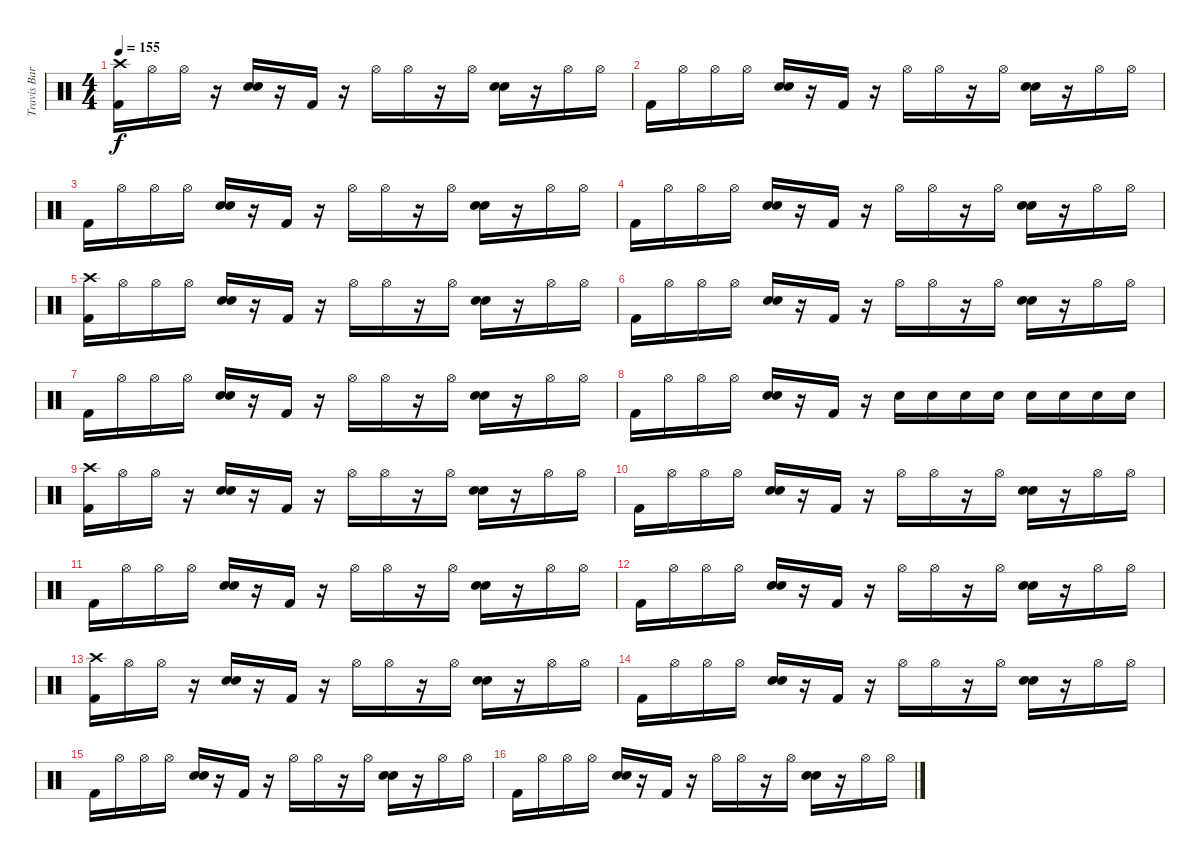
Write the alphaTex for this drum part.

\track ("Travis Barker Drums" "Travis Bar") {instrument percussion}
\staff {score}
\articulation defaults
\ts (4 4)
\tempo 155
\clef neutral
\ks c
("Crash high (hit)" "Kick (hit) 2").16{dy f} "Hi-Hat (open)".16 "Hi-Hat (open)".16 r.16 ("Hand Clap (hit)" "Snare (hit) 2").16 r.16 "Kick (hit) 2".16 r.16 "Hi-Hat (open)".16 "Hi-Hat (open)".16 r.16 "Hi-Hat (open)".16 ("Hand Clap (hit)" "Snare (hit) 2").16 r.16 "Hi-Hat (open)".16 "Hi-Hat (open)".16 |
"Kick (hit) 2".16 "Hi-Hat (open)".16 "Hi-Hat (open)".16 "Hi-Hat (open)".16 ("Hand Clap (hit)" "Snare (hit) 2").16 r.16 "Kick (hit) 2".16 r.16 "Hi-Hat (open)".16 "Hi-Hat (open)".16 r.16 "Hi-Hat (open)".16 ("Hand Clap (hit)" "Snare (hit) 2").16 r.16 "Hi-Hat (open)".16 "Hi-Hat (open)".16 |
"Kick (hit) 2".16 "Hi-Hat (open)".16 "Hi-Hat (open)".16 "Hi-Hat (open)".16 ("Hand Clap (hit)" "Snare (hit) 2").16 r.16 "Kick (hit) 2".16 r.16 "Hi-Hat (open)".16 "Hi-Hat (open)".16 r.16 "Hi-Hat (open)".16 ("Hand Clap (hit)" "Snare (hit) 2").16 r.16 "Hi-Hat (open)".16 "Hi-Hat (open)".16 |
"Kick (hit) 2".16 "Hi-Hat (open)".16 "Hi-Hat (open)".16 "Hi-Hat (open)".16 ("Hand Clap (hit)" "Snare (hit) 2").16 r.16 "Kick (hit) 2".16 r.16 "Hi-Hat (open)".16 "Hi-Hat (open)".16 r.16 "Hi-Hat (open)".16 ("Hand Clap (hit)" "Snare (hit) 2").16 r.16 "Hi-Hat (open)".16 "Hi-Hat (open)".16 |
("Crash high (hit)" "Kick (hit) 2").16 "Hi-Hat (open)".16 "Hi-Hat (open)".16 "Hi-Hat (open)".16 ("Hand Clap (hit)" "Snare (hit) 2").16 r.16 "Kick (hit) 2".16 r.16 "Hi-Hat (open)".16 "Hi-Hat (open)".16 r.16 "Hi-Hat (open)".16 ("Hand Clap (hit)" "Snare (hit) 2").16 r.16 "Hi-Hat (open)".16 "Hi-Hat (open)".16 |
"Kick (hit) 2".16 "Hi-Hat (open)".16 "Hi-Hat (open)".16 "Hi-Hat (open)".16 ("Hand Clap (hit)" "Snare (hit) 2").16 r.16 "Kick (hit) 2".16 r.16 "Hi-Hat (open)".16 "Hi-Hat (open)".16 r.16 "Hi-Hat (open)".16 ("Hand Clap (hit)" "Snare (hit) 2").16 r.16 "Hi-Hat (open)".16 "Hi-Hat (open)".16 |
"Kick (hit) 2".16 "Hi-Hat (open)".16 "Hi-Hat (open)".16 "Hi-Hat (open)".16 ("Hand Clap (hit)" "Snare (hit) 2").16 r.16 "Kick (hit) 2".16 r.16 "Hi-Hat (open)".16 "Hi-Hat (open)".16 r.16 "Hi-Hat (open)".16 ("Hand Clap (hit)" "Snare (hit) 2").16 r.16 "Hi-Hat (open)".16 "Hi-Hat (open)".16 |
"Kick (hit) 2".16 "Hi-Hat (open)".16 "Hi-Hat (open)".16 "Hi-Hat (open)".16 ("Hand Clap (hit)" "Snare (hit) 2").16 r.16 "Kick (hit) 2".16 r.16 "Snare (hit) 2".16 "Snare (hit) 2".16 "Snare (hit) 2".16 "Snare (hit) 2".16 "Snare (hit) 2".16 "Snare (hit) 2".16 "Snare (hit) 2".16 "Snare (hit) 2".16 |
("Crash high (hit)" "Kick (hit) 2").16 "Hi-Hat (open)".16 "Hi-Hat (open)".16 r.16 ("Hand Clap (hit)" "Snare (hit) 2").16 r.16 "Kick (hit) 2".16 r.16 "Hi-Hat (open)".16 "Hi-Hat (open)".16 r.16 "Hi-Hat (open)".16 ("Hand Clap (hit)" "Snare (hit) 2").16 r.16 "Hi-Hat (open)".16 "Hi-Hat (open)".16 |
"Kick (hit) 2".16 "Hi-Hat (open)".16 "Hi-Hat (open)".16 "Hi-Hat (open)".16 ("Hand Clap (hit)" "Snare (hit) 2").16 r.16 "Kick (hit) 2".16 r.16 "Hi-Hat (open)".16 "Hi-Hat (open)".16 r.16 "Hi-Hat (open)".16 ("Hand Clap (hit)" "Snare (hit) 2").16 r.16 "Hi-Hat (open)".16 "Hi-Hat (open)".16 |
"Kick (hit) 2".16 "Hi-Hat (open)".16 "Hi-Hat (open)".16 "Hi-Hat (open)".16 ("Hand Clap (hit)" "Snare (hit) 2").16 r.16 "Kick (hit) 2".16 r.16 "Hi-Hat (open)".16 "Hi-Hat (open)".16 r.16 "Hi-Hat (open)".16 ("Hand Clap (hit)" "Snare (hit) 2").16 r.16 "Hi-Hat (open)".16 "Hi-Hat (open)".16 |
"Kick (hit) 2".16 "Hi-Hat (open)".16 "Hi-Hat (open)".16 "Hi-Hat (open)".16 ("Hand Clap (hit)" "Snare (hit) 2").16 r.16 "Kick (hit) 2".16 r.16 "Hi-Hat (open)".16 "Hi-Hat (open)".16 r.16 "Hi-Hat (open)".16 ("Hand Clap (hit)" "Snare (hit) 2").16 r.16 "Hi-Hat (open)".16 "Hi-Hat (open)".16 |
("Crash high (hit)" "Kick (hit) 2").16 "Hi-Hat (open)".16 "Hi-Hat (open)".16 r.16 ("Hand Clap (hit)" "Snare (hit) 2").16 r.16 "Kick (hit) 2".16 r.16 "Hi-Hat (open)".16 "Hi-Hat (open)".16 r.16 "Hi-Hat (open)".16 ("Hand Clap (hit)" "Snare (hit) 2").16 r.16 "Hi-Hat (open)".16 "Hi-Hat (open)".16 |
"Kick (hit) 2".16 "Hi-Hat (open)".16 "Hi-Hat (open)".16 "Hi-Hat (open)".16 ("Hand Clap (hit)" "Snare (hit) 2").16 r.16 "Kick (hit) 2".16 r.16 "Hi-Hat (open)".16 "Hi-Hat (open)".16 r.16 "Hi-Hat (open)".16 ("Hand Clap (hit)" "Snare (hit) 2").16 r.16 "Hi-Hat (open)".16 "Hi-Hat (open)".16 |
"Kick (hit) 2".16 "Hi-Hat (open)".16 "Hi-Hat (open)".16 "Hi-Hat (open)".16 ("Hand Clap (hit)" "Snare (hit) 2").16 r.16 "Kick (hit) 2".16 r.16 "Hi-Hat (open)".16 "Hi-Hat (open)".16 r.16 "Hi-Hat (open)".16 ("Hand Clap (hit)" "Snare (hit) 2").16 r.16 "Hi-Hat (open)".16 "Hi-Hat (open)".16 |
"Kick (hit) 2".16 "Hi-Hat (open)".16 "Hi-Hat (open)".16 "Hi-Hat (open)".16 ("Hand Clap (hit)" "Snare (hit) 2").16 r.16 "Kick (hit) 2".16 r.16 "Hi-Hat (open)".16 "Hi-Hat (open)".16 r.16 "Hi-Hat (open)".16 ("Hand Clap (hit)" "Snare (hit) 2").16 r.16 "Hi-Hat (open)".16 "Hi-Hat (open)".16
